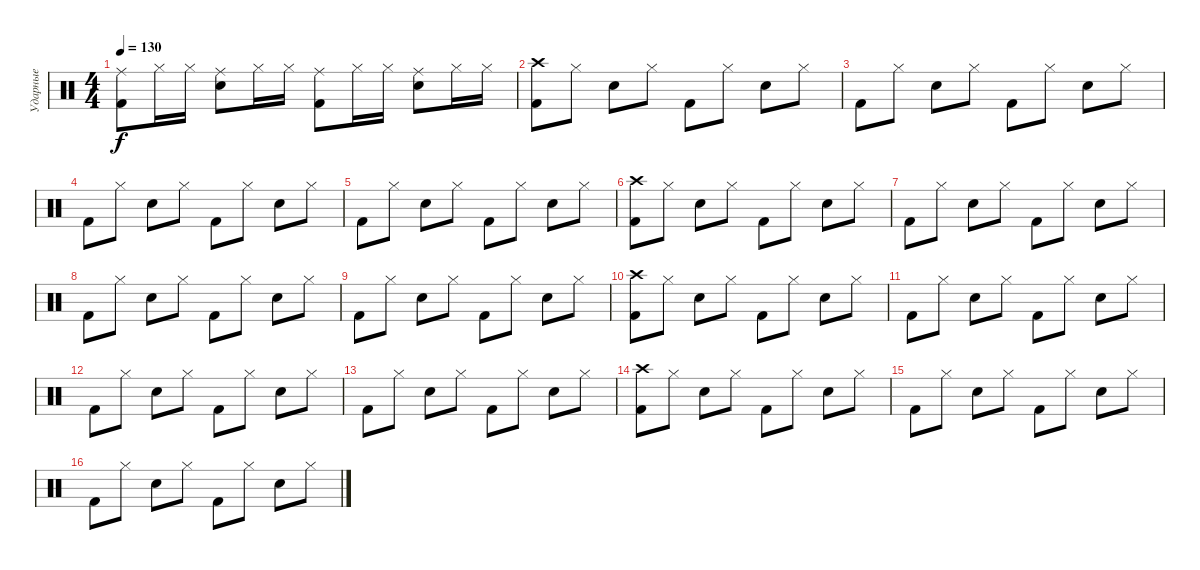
\track ("Ударные" "Ударные") {instrument percussion}
\staff {score}
\articulation defaults
\ts (4 4)
\tempo 130
\clef neutral
\ks c
("Ride (middle)" "Kick (hit) 2").8{dy f} "Hi-Hat (closed)".16 "Hi-Hat (closed)".16 ("Ride (middle)" "Electric Snare (hit)").8 "Hi-Hat (closed)".16 "Hi-Hat (closed)".16 ("Ride (middle)" "Kick (hit) 2").8 "Hi-Hat (closed)".16 "Hi-Hat (closed)".16 ("Ride (middle)" "Electric Snare (hit)").8 "Hi-Hat (closed)".16 "Hi-Hat (closed)".16 |
("Crash high (hit)" "Kick (hit) 2").8 "Hi-Hat (closed)".8 "Electric Snare (hit)".8 "Hi-Hat (closed)".8 "Kick (hit) 2".8 "Hi-Hat (closed)".8 "Electric Snare (hit)".8 "Hi-Hat (closed)".8 |
"Kick (hit) 2".8 "Hi-Hat (closed)".8 "Electric Snare (hit)".8 "Hi-Hat (closed)".8 "Kick (hit) 2".8 "Hi-Hat (closed)".8 "Electric Snare (hit)".8 "Hi-Hat (closed)".8 |
"Kick (hit) 2".8 "Hi-Hat (closed)".8 "Electric Snare (hit)".8 "Hi-Hat (closed)".8 "Kick (hit) 2".8 "Hi-Hat (closed)".8 "Electric Snare (hit)".8 "Hi-Hat (closed)".8 |
"Kick (hit) 2".8 "Hi-Hat (closed)".8 "Electric Snare (hit)".8 "Hi-Hat (closed)".8 "Kick (hit) 2".8 "Hi-Hat (closed)".8 "Electric Snare (hit)".8 "Hi-Hat (closed)".8 |
("Crash high (hit)" "Kick (hit) 2").8 "Hi-Hat (closed)".8 "Electric Snare (hit)".8 "Hi-Hat (closed)".8 "Kick (hit) 2".8 "Hi-Hat (closed)".8 "Electric Snare (hit)".8 "Hi-Hat (closed)".8 |
"Kick (hit) 2".8 "Hi-Hat (closed)".8 "Electric Snare (hit)".8 "Hi-Hat (closed)".8 "Kick (hit) 2".8 "Hi-Hat (closed)".8 "Electric Snare (hit)".8 "Hi-Hat (closed)".8 |
"Kick (hit) 2".8 "Hi-Hat (closed)".8 "Electric Snare (hit)".8 "Hi-Hat (closed)".8 "Kick (hit) 2".8 "Hi-Hat (closed)".8 "Electric Snare (hit)".8 "Hi-Hat (closed)".8 |
"Kick (hit) 2".8 "Hi-Hat (closed)".8 "Electric Snare (hit)".8 "Hi-Hat (closed)".8 "Kick (hit) 2".8 "Hi-Hat (closed)".8 "Electric Snare (hit)".8 "Hi-Hat (closed)".8 |
("Crash high (hit)" "Kick (hit) 2").8 "Hi-Hat (closed)".8 "Electric Snare (hit)".8 "Hi-Hat (closed)".8 "Kick (hit) 2".8 "Hi-Hat (closed)".8 "Electric Snare (hit)".8 "Hi-Hat (closed)".8 |
"Kick (hit) 2".8 "Hi-Hat (closed)".8 "Electric Snare (hit)".8 "Hi-Hat (closed)".8 "Kick (hit) 2".8 "Hi-Hat (closed)".8 "Electric Snare (hit)".8 "Hi-Hat (closed)".8 |
"Kick (hit) 2".8 "Hi-Hat (closed)".8 "Electric Snare (hit)".8 "Hi-Hat (closed)".8 "Kick (hit) 2".8 "Hi-Hat (closed)".8 "Electric Snare (hit)".8 "Hi-Hat (closed)".8 |
"Kick (hit) 2".8 "Hi-Hat (closed)".8 "Electric Snare (hit)".8 "Hi-Hat (closed)".8 "Kick (hit) 2".8 "Hi-Hat (closed)".8 "Electric Snare (hit)".8 "Hi-Hat (closed)".8 |
("Crash high (hit)" "Kick (hit) 2").8 "Hi-Hat (closed)".8 "Electric Snare (hit)".8 "Hi-Hat (closed)".8 "Kick (hit) 2".8 "Hi-Hat (closed)".8 "Electric Snare (hit)".8 "Hi-Hat (closed)".8 |
"Kick (hit) 2".8 "Hi-Hat (closed)".8 "Electric Snare (hit)".8 "Hi-Hat (closed)".8 "Kick (hit) 2".8 "Hi-Hat (closed)".8 "Electric Snare (hit)".8 "Hi-Hat (closed)".8 |
"Kick (hit) 2".8 "Hi-Hat (closed)".8 "Electric Snare (hit)".8 "Hi-Hat (closed)".8 "Kick (hit) 2".8 "Hi-Hat (closed)".8 "Electric Snare (hit)".8 "Hi-Hat (closed)".8
